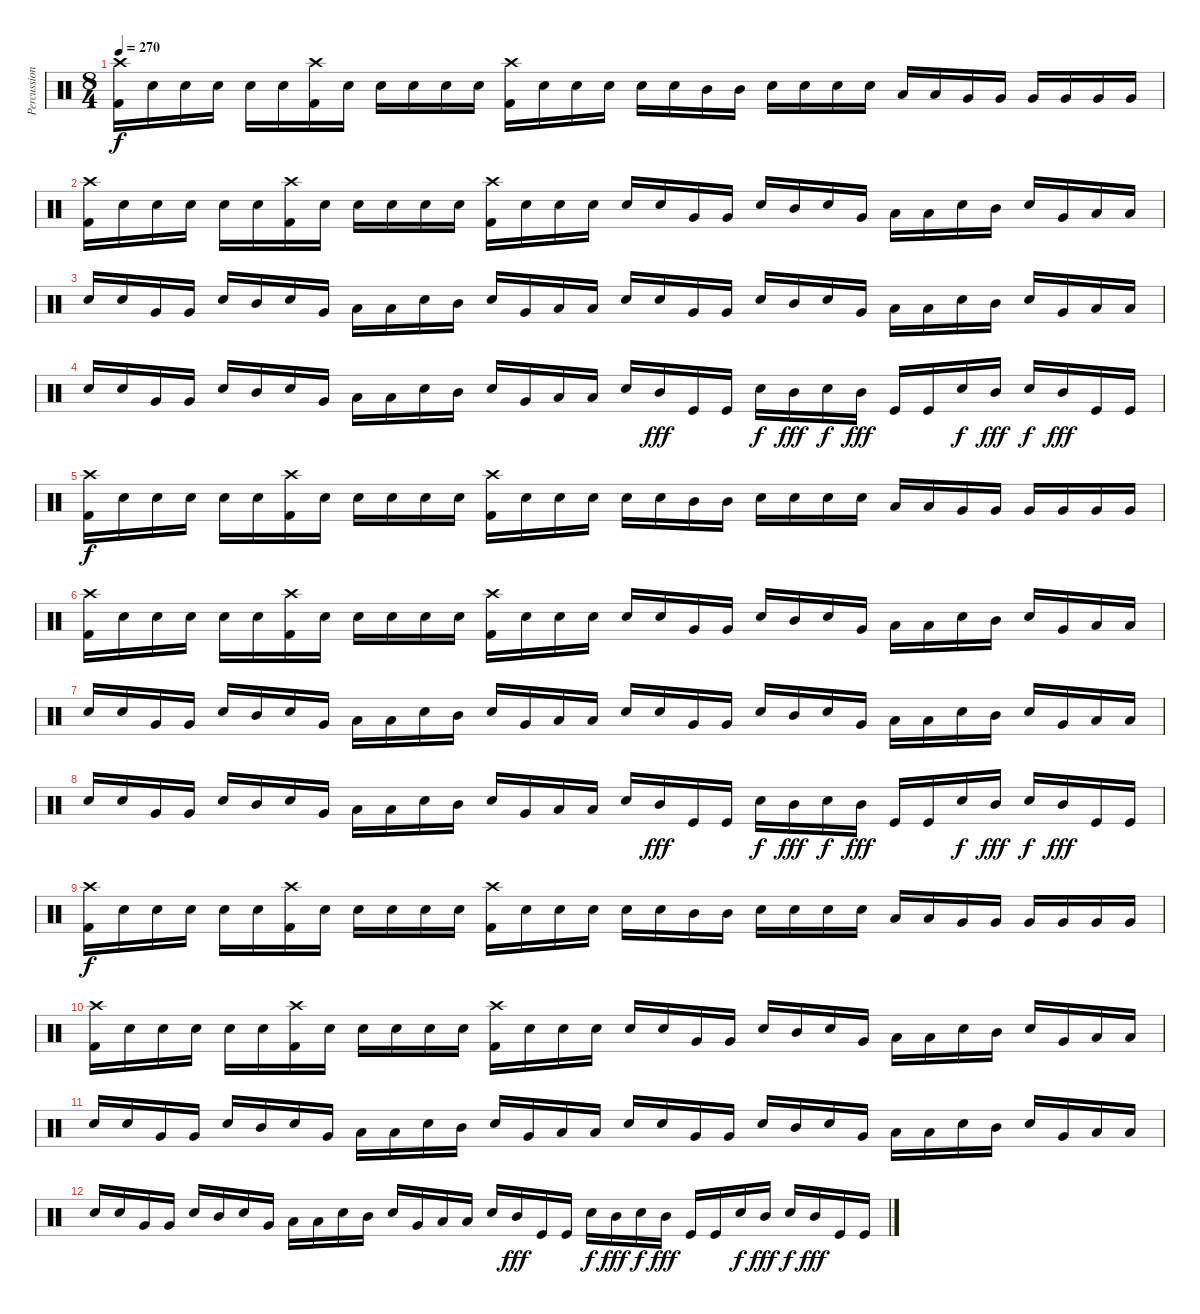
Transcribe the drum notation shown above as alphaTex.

\track ("Percussion" "Percussion") {instrument percussion}
\staff {score}
\articulation defaults
\ts (8 4)
\tempo 270
\clef neutral
\ks c
("Crash high (hit)" "Kick (hit) 2").16{dy f} "Electric Snare (hit)".16 "Electric Snare (hit)".16 "Electric Snare (hit)".16 "Electric Snare (hit)".16 "Electric Snare (hit)".16 ("Crash high (hit)" "Kick (hit) 2").16 "Electric Snare (hit)".16 "Electric Snare (hit)".16 "Electric Snare (hit)".16 "Electric Snare (hit)".16 "Electric Snare (hit)".16 ("Crash high (hit)" "Kick (hit) 2").16 "Electric Snare (hit)".16 "Electric Snare (hit)".16 "Electric Snare (hit)".16 "Electric Snare (hit)".16 "Electric Snare (hit)".16 "Mid Tom (hit)".16 "Mid Tom (hit)".16 "Electric Snare (hit)".16 "Electric Snare (hit)".16 "Electric Snare (hit)".16 "Electric Snare (hit)".16 "Low Tom (hit)".16 "Low Tom (hit)".16 "Very Low Tom (hit)".16 "Very Low Tom (hit)".16 "Very Low Tom (hit)".16 "Very Low Tom (hit)".16 "Very Low Tom (hit)".16 "Very Low Tom (hit)".16 |
("Crash high (hit)" "Kick (hit) 2").16 "Electric Snare (hit)".16 "Electric Snare (hit)".16 "Electric Snare (hit)".16 "Electric Snare (hit)".16 "Electric Snare (hit)".16 ("Crash high (hit)" "Kick (hit) 2").16 "Electric Snare (hit)".16 "Electric Snare (hit)".16 "Electric Snare (hit)".16 "Electric Snare (hit)".16 "Electric Snare (hit)".16 ("Crash high (hit)" "Kick (hit) 2").16 "Electric Snare (hit)".16 "Electric Snare (hit)".16 "Electric Snare (hit)".16 "Electric Snare (hit)".16 "Electric Snare (hit)".16 "Very Low Tom (hit)".16 "Very Low Tom (hit)".16 "Electric Snare (hit)".16 "Mid Tom (hit)".16 "Electric Snare (hit)".16 "Very Low Tom (hit)".16 "Low Tom (hit)".16 "Low Tom (hit)".16 "Electric Snare (hit)".16 "Mid Tom (hit)".16 "Electric Snare (hit)".16 "Very Low Tom (hit)".16 "Low Tom (hit)".16 "Low Tom (hit)".16 |
"Electric Snare (hit)".16 "Electric Snare (hit)".16 "Very Low Tom (hit)".16 "Very Low Tom (hit)".16 "Electric Snare (hit)".16 "Mid Tom (hit)".16 "Electric Snare (hit)".16 "Very Low Tom (hit)".16 "Low Tom (hit)".16 "Low Tom (hit)".16 "Electric Snare (hit)".16 "Mid Tom (hit)".16 "Electric Snare (hit)".16 "Very Low Tom (hit)".16 "Low Tom (hit)".16 "Low Tom (hit)".16 "Electric Snare (hit)".16 "Electric Snare (hit)".16 "Very Low Tom (hit)".16 "Very Low Tom (hit)".16 "Electric Snare (hit)".16 "Mid Tom (hit)".16 "Electric Snare (hit)".16 "Very Low Tom (hit)".16 "Low Tom (hit)".16 "Low Tom (hit)".16 "Electric Snare (hit)".16 "Mid Tom (hit)".16 "Electric Snare (hit)".16 "Very Low Tom (hit)".16 "Low Tom (hit)".16 "Low Tom (hit)".16 |
"Electric Snare (hit)".16 "Electric Snare (hit)".16 "Very Low Tom (hit)".16 "Very Low Tom (hit)".16 "Electric Snare (hit)".16 "Mid Tom (hit)".16 "Electric Snare (hit)".16 "Very Low Tom (hit)".16 "Low Tom (hit)".16 "Low Tom (hit)".16 "Electric Snare (hit)".16 "Mid Tom (hit)".16 "Electric Snare (hit)".16 "Very Low Tom (hit)".16 "Low Tom (hit)".16 "Low Tom (hit)".16 "Snare (hit) 2".16 "Mid Tom (hit)".16{dy fff} "Kick (hit)".16 "Kick (hit)".16 "Snare (hit) 2".16{dy f} "Mid Tom (hit)".16{dy fff} "Snare (hit) 2".16{dy f} "Mid Tom (hit)".16{dy fff} "Kick (hit)".16 "Kick (hit)".16 "Snare (hit) 2".16{dy f} "Mid Tom (hit)".16{dy fff} "Snare (hit) 2".16{dy f} "Mid Tom (hit)".16{dy fff} "Kick (hit)".16 "Kick (hit)".16 |
("Crash high (hit)" "Kick (hit) 2").16{dy f} "Electric Snare (hit)".16 "Electric Snare (hit)".16 "Electric Snare (hit)".16 "Electric Snare (hit)".16 "Electric Snare (hit)".16 ("Crash high (hit)" "Kick (hit) 2").16 "Electric Snare (hit)".16 "Electric Snare (hit)".16 "Electric Snare (hit)".16 "Electric Snare (hit)".16 "Electric Snare (hit)".16 ("Crash high (hit)" "Kick (hit) 2").16 "Electric Snare (hit)".16 "Electric Snare (hit)".16 "Electric Snare (hit)".16 "Electric Snare (hit)".16 "Electric Snare (hit)".16 "Mid Tom (hit)".16 "Mid Tom (hit)".16 "Electric Snare (hit)".16 "Electric Snare (hit)".16 "Electric Snare (hit)".16 "Electric Snare (hit)".16 "Low Tom (hit)".16 "Low Tom (hit)".16 "Very Low Tom (hit)".16 "Very Low Tom (hit)".16 "Very Low Tom (hit)".16 "Very Low Tom (hit)".16 "Very Low Tom (hit)".16 "Very Low Tom (hit)".16 |
("Crash high (hit)" "Kick (hit) 2").16 "Electric Snare (hit)".16 "Electric Snare (hit)".16 "Electric Snare (hit)".16 "Electric Snare (hit)".16 "Electric Snare (hit)".16 ("Crash high (hit)" "Kick (hit) 2").16 "Electric Snare (hit)".16 "Electric Snare (hit)".16 "Electric Snare (hit)".16 "Electric Snare (hit)".16 "Electric Snare (hit)".16 ("Crash high (hit)" "Kick (hit) 2").16 "Electric Snare (hit)".16 "Electric Snare (hit)".16 "Electric Snare (hit)".16 "Electric Snare (hit)".16 "Electric Snare (hit)".16 "Very Low Tom (hit)".16 "Very Low Tom (hit)".16 "Electric Snare (hit)".16 "Mid Tom (hit)".16 "Electric Snare (hit)".16 "Very Low Tom (hit)".16 "Low Tom (hit)".16 "Low Tom (hit)".16 "Electric Snare (hit)".16 "Mid Tom (hit)".16 "Electric Snare (hit)".16 "Very Low Tom (hit)".16 "Low Tom (hit)".16 "Low Tom (hit)".16 |
"Electric Snare (hit)".16 "Electric Snare (hit)".16 "Very Low Tom (hit)".16 "Very Low Tom (hit)".16 "Electric Snare (hit)".16 "Mid Tom (hit)".16 "Electric Snare (hit)".16 "Very Low Tom (hit)".16 "Low Tom (hit)".16 "Low Tom (hit)".16 "Electric Snare (hit)".16 "Mid Tom (hit)".16 "Electric Snare (hit)".16 "Very Low Tom (hit)".16 "Low Tom (hit)".16 "Low Tom (hit)".16 "Electric Snare (hit)".16 "Electric Snare (hit)".16 "Very Low Tom (hit)".16 "Very Low Tom (hit)".16 "Electric Snare (hit)".16 "Mid Tom (hit)".16 "Electric Snare (hit)".16 "Very Low Tom (hit)".16 "Low Tom (hit)".16 "Low Tom (hit)".16 "Electric Snare (hit)".16 "Mid Tom (hit)".16 "Electric Snare (hit)".16 "Very Low Tom (hit)".16 "Low Tom (hit)".16 "Low Tom (hit)".16 |
"Electric Snare (hit)".16 "Electric Snare (hit)".16 "Very Low Tom (hit)".16 "Very Low Tom (hit)".16 "Electric Snare (hit)".16 "Mid Tom (hit)".16 "Electric Snare (hit)".16 "Very Low Tom (hit)".16 "Low Tom (hit)".16 "Low Tom (hit)".16 "Electric Snare (hit)".16 "Mid Tom (hit)".16 "Electric Snare (hit)".16 "Very Low Tom (hit)".16 "Low Tom (hit)".16 "Low Tom (hit)".16 "Snare (hit) 2".16 "Mid Tom (hit)".16{dy fff} "Kick (hit)".16 "Kick (hit)".16 "Snare (hit) 2".16{dy f} "Mid Tom (hit)".16{dy fff} "Snare (hit) 2".16{dy f} "Mid Tom (hit)".16{dy fff} "Kick (hit)".16 "Kick (hit)".16 "Snare (hit) 2".16{dy f} "Mid Tom (hit)".16{dy fff} "Snare (hit) 2".16{dy f} "Mid Tom (hit)".16{dy fff} "Kick (hit)".16 "Kick (hit)".16 |
("Crash high (hit)" "Kick (hit) 2").16{dy f} "Electric Snare (hit)".16 "Electric Snare (hit)".16 "Electric Snare (hit)".16 "Electric Snare (hit)".16 "Electric Snare (hit)".16 ("Crash high (hit)" "Kick (hit) 2").16 "Electric Snare (hit)".16 "Electric Snare (hit)".16 "Electric Snare (hit)".16 "Electric Snare (hit)".16 "Electric Snare (hit)".16 ("Crash high (hit)" "Kick (hit) 2").16 "Electric Snare (hit)".16 "Electric Snare (hit)".16 "Electric Snare (hit)".16 "Electric Snare (hit)".16 "Electric Snare (hit)".16 "Mid Tom (hit)".16 "Mid Tom (hit)".16 "Electric Snare (hit)".16 "Electric Snare (hit)".16 "Electric Snare (hit)".16 "Electric Snare (hit)".16 "Low Tom (hit)".16 "Low Tom (hit)".16 "Very Low Tom (hit)".16 "Very Low Tom (hit)".16 "Very Low Tom (hit)".16 "Very Low Tom (hit)".16 "Very Low Tom (hit)".16 "Very Low Tom (hit)".16 |
("Crash high (hit)" "Kick (hit) 2").16 "Electric Snare (hit)".16 "Electric Snare (hit)".16 "Electric Snare (hit)".16 "Electric Snare (hit)".16 "Electric Snare (hit)".16 ("Crash high (hit)" "Kick (hit) 2").16 "Electric Snare (hit)".16 "Electric Snare (hit)".16 "Electric Snare (hit)".16 "Electric Snare (hit)".16 "Electric Snare (hit)".16 ("Crash high (hit)" "Kick (hit) 2").16 "Electric Snare (hit)".16 "Electric Snare (hit)".16 "Electric Snare (hit)".16 "Electric Snare (hit)".16 "Electric Snare (hit)".16 "Very Low Tom (hit)".16 "Very Low Tom (hit)".16 "Electric Snare (hit)".16 "Mid Tom (hit)".16 "Electric Snare (hit)".16 "Very Low Tom (hit)".16 "Low Tom (hit)".16 "Low Tom (hit)".16 "Electric Snare (hit)".16 "Mid Tom (hit)".16 "Electric Snare (hit)".16 "Very Low Tom (hit)".16 "Low Tom (hit)".16 "Low Tom (hit)".16 |
"Electric Snare (hit)".16 "Electric Snare (hit)".16 "Very Low Tom (hit)".16 "Very Low Tom (hit)".16 "Electric Snare (hit)".16 "Mid Tom (hit)".16 "Electric Snare (hit)".16 "Very Low Tom (hit)".16 "Low Tom (hit)".16 "Low Tom (hit)".16 "Electric Snare (hit)".16 "Mid Tom (hit)".16 "Electric Snare (hit)".16 "Very Low Tom (hit)".16 "Low Tom (hit)".16 "Low Tom (hit)".16 "Electric Snare (hit)".16 "Electric Snare (hit)".16 "Very Low Tom (hit)".16 "Very Low Tom (hit)".16 "Electric Snare (hit)".16 "Mid Tom (hit)".16 "Electric Snare (hit)".16 "Very Low Tom (hit)".16 "Low Tom (hit)".16 "Low Tom (hit)".16 "Electric Snare (hit)".16 "Mid Tom (hit)".16 "Electric Snare (hit)".16 "Very Low Tom (hit)".16 "Low Tom (hit)".16 "Low Tom (hit)".16 |
"Electric Snare (hit)".16 "Electric Snare (hit)".16 "Very Low Tom (hit)".16 "Very Low Tom (hit)".16 "Electric Snare (hit)".16 "Mid Tom (hit)".16 "Electric Snare (hit)".16 "Very Low Tom (hit)".16 "Low Tom (hit)".16 "Low Tom (hit)".16 "Electric Snare (hit)".16 "Mid Tom (hit)".16 "Electric Snare (hit)".16 "Very Low Tom (hit)".16 "Low Tom (hit)".16 "Low Tom (hit)".16 "Snare (hit) 2".16 "Mid Tom (hit)".16{dy fff} "Kick (hit)".16 "Kick (hit)".16 "Snare (hit) 2".16{dy f} "Mid Tom (hit)".16{dy fff} "Snare (hit) 2".16{dy f} "Mid Tom (hit)".16{dy fff} "Kick (hit)".16 "Kick (hit)".16 "Snare (hit) 2".16{dy f} "Mid Tom (hit)".16{dy fff} "Snare (hit) 2".16{dy f} "Mid Tom (hit)".16{dy fff} "Kick (hit)".16 "Kick (hit)".16
